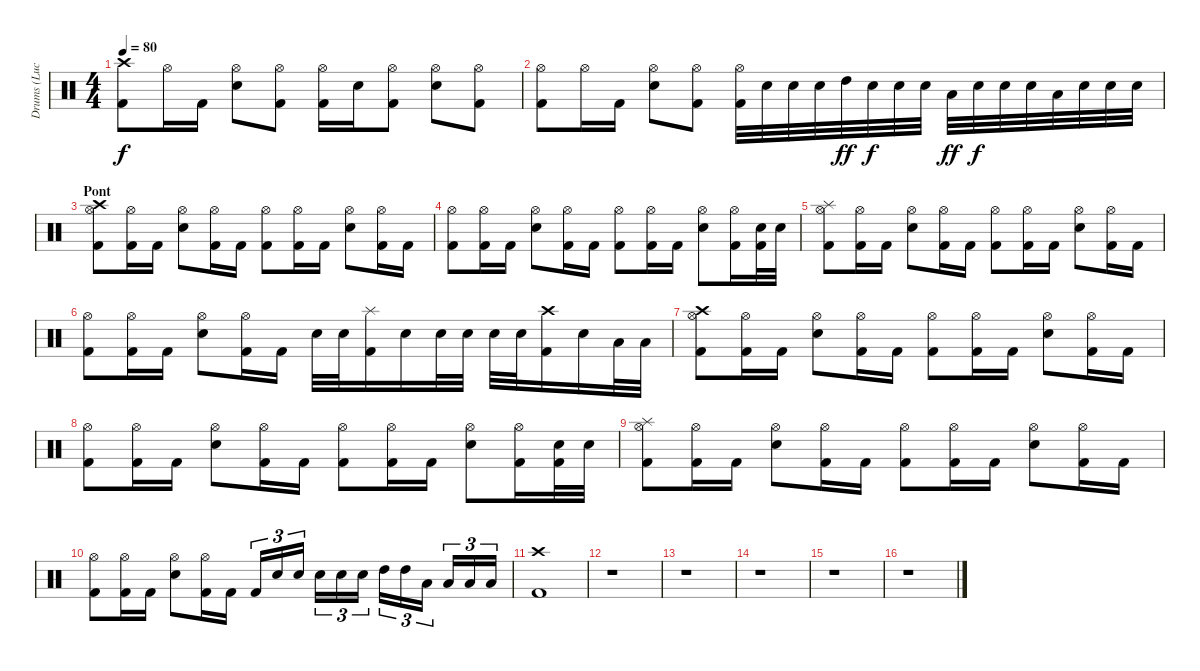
\track ("Drums (Luc)" "Drums (Luc") {instrument percussion}
\staff {score}
\articulation defaults
\ts (4 4)
\tempo 80
\clef neutral
\ks c
("Crash high (hit)" "Kick (hit) 2").8{dy f} "Hi-Hat (open)".16 "Kick (hit) 2".16 ("Hi-Hat (open)" "Electric Snare (hit)").8 ("Hi-Hat (open)" "Kick (hit) 2").8 ("Hi-Hat (open)" "Kick (hit) 2").16 "Electric Snare (hit)".16 ("Hi-Hat (open)" "Kick (hit) 2").8 ("Hi-Hat (open)" "Electric Snare (hit)").8 ("Hi-Hat (open)" "Kick (hit) 2").8 |
("Hi-Hat (open)" "Kick (hit) 2").8 "Hi-Hat (open)".16 "Kick (hit) 2".16 ("Hi-Hat (open)" "Electric Snare (hit)").8 ("Hi-Hat (open)" "Kick (hit) 2").8 ("Hi-Hat (open)" "Kick (hit) 2").32 "Electric Snare (hit)".32 "Electric Snare (hit)".32 "Electric Snare (hit)".32 "High Tom (hit)".32{dy ff} "Electric Snare (hit)".32{dy f} "Electric Snare (hit)".32 "Electric Snare (hit)".32 "Low Tom (hit)".32{dy ff} "Electric Snare (hit)".32{dy f} "Electric Snare (hit)".32 "Electric Snare (hit)".32 "Low Floor Tom (hit)".32 "Electric Snare (hit)".32 "Electric Snare (hit)".32 "Electric Snare (hit)".32 |
\section ("" "Pont")
("Crash high (hit)" "Hi-Hat (open)" "Kick (hit) 2").8 ("Hi-Hat (open)" "Kick (hit) 2").16 "Kick (hit) 2".16 ("Hi-Hat (open)" "Electric Snare (hit)").8 ("Hi-Hat (open)" "Kick (hit) 2").16 "Kick (hit) 2".16 ("Hi-Hat (open)" "Kick (hit) 2").8 ("Hi-Hat (open)" "Kick (hit) 2").16 "Kick (hit) 2".16 ("Hi-Hat (open)" "Electric Snare (hit)").8 ("Hi-Hat (open)" "Kick (hit) 2").16 "Kick (hit) 2".16 |
("Hi-Hat (open)" "Kick (hit) 2").8 ("Hi-Hat (open)" "Kick (hit) 2").16 "Kick (hit) 2".16 ("Hi-Hat (open)" "Electric Snare (hit)").8 ("Hi-Hat (open)" "Kick (hit) 2").16 "Kick (hit) 2".16 ("Hi-Hat (open)" "Kick (hit) 2").8 ("Hi-Hat (open)" "Kick (hit) 2").16 "Kick (hit) 2".16 ("Hi-Hat (open)" "Electric Snare (hit)").8 ("Hi-Hat (open)" "Kick (hit) 2").16 ("Electric Snare (hit)" "Kick (hit) 2").32 "Electric Snare (hit)".32 |
("Splash (hit)" "Hi-Hat (open)" "Kick (hit) 2").8 ("Hi-Hat (open)" "Kick (hit) 2").16 "Kick (hit) 2".16 ("Hi-Hat (open)" "Electric Snare (hit)").8 ("Hi-Hat (open)" "Kick (hit) 2").16 "Kick (hit) 2".16 ("Hi-Hat (open)" "Kick (hit) 2").8 ("Hi-Hat (open)" "Kick (hit) 2").16 "Kick (hit) 2".16 ("Hi-Hat (open)" "Electric Snare (hit)").8 ("Hi-Hat (open)" "Kick (hit) 2").16 "Kick (hit) 2".16 |
("Hi-Hat (open)" "Kick (hit) 2").8 ("Hi-Hat (open)" "Kick (hit) 2").16 "Kick (hit) 2".16 ("Hi-Hat (open)" "Electric Snare (hit)").8 ("Hi-Hat (open)" "Kick (hit) 2").16 "Kick (hit) 2".16 "Electric Snare (hit)".32 "Electric Snare (hit)".32 ("Splash (hit)" "Kick (hit) 2").16 "Electric Snare (hit)".16 "Electric Snare (hit)".32 "Electric Snare (hit)".32 "Electric Snare (hit)".32 "Electric Snare (hit)".32 ("Crash high (hit)" "Kick (hit) 2").16 "Electric Snare (hit)".16 "Low Tom (hit)".32 "Low Floor Tom (hit)".32 |
("Crash high (hit)" "Hi-Hat (open)" "Kick (hit) 2").8 ("Hi-Hat (open)" "Kick (hit) 2").16 "Kick (hit) 2".16 ("Hi-Hat (open)" "Electric Snare (hit)").8 ("Hi-Hat (open)" "Kick (hit) 2").16 "Kick (hit) 2".16 ("Hi-Hat (open)" "Kick (hit) 2").8 ("Hi-Hat (open)" "Kick (hit) 2").16 "Kick (hit) 2".16 ("Hi-Hat (open)" "Electric Snare (hit)").8 ("Hi-Hat (open)" "Kick (hit) 2").16 "Kick (hit) 2".16 |
("Hi-Hat (open)" "Kick (hit) 2").8 ("Hi-Hat (open)" "Kick (hit) 2").16 "Kick (hit) 2".16 ("Hi-Hat (open)" "Electric Snare (hit)").8 ("Hi-Hat (open)" "Kick (hit) 2").16 "Kick (hit) 2".16 ("Hi-Hat (open)" "Kick (hit) 2").8 ("Hi-Hat (open)" "Kick (hit) 2").16 "Kick (hit) 2".16 ("Hi-Hat (open)" "Electric Snare (hit)").8 ("Hi-Hat (open)" "Kick (hit) 2").16 ("Electric Snare (hit)" "Kick (hit) 2").32 "Electric Snare (hit)".32 |
("Splash (hit)" "Hi-Hat (open)" "Kick (hit) 2").8 ("Hi-Hat (open)" "Kick (hit) 2").16 "Kick (hit) 2".16 ("Hi-Hat (open)" "Electric Snare (hit)").8 ("Hi-Hat (open)" "Kick (hit) 2").16 "Kick (hit) 2".16 ("Hi-Hat (open)" "Kick (hit) 2").8 ("Hi-Hat (open)" "Kick (hit) 2").16 "Kick (hit) 2".16 ("Hi-Hat (open)" "Electric Snare (hit)").8 ("Hi-Hat (open)" "Kick (hit) 2").16 "Kick (hit) 2".16 |
("Hi-Hat (open)" "Kick (hit) 2").8 ("Hi-Hat (open)" "Kick (hit) 2").16 "Kick (hit) 2".16 ("Hi-Hat (open)" "Electric Snare (hit)").8 ("Hi-Hat (open)" "Kick (hit) 2").16 "Kick (hit) 2".16 "Kick (hit) 2".16{tu (3 2)} "Electric Snare (hit)".16{tu (3 2)} "Electric Snare (hit)".16{tu (3 2)} "Electric Snare (hit)".16{tu (3 2)} "Electric Snare (hit)".16{tu (3 2)} "Electric Snare (hit)".16{tu (3 2)} "High Tom (hit)".16{tu (3 2)} "High Tom (hit)".16{tu (3 2)} "Low Tom (hit)".16{tu (3 2)} "Low Tom (hit)".16{tu (3 2)} "Low Floor Tom (hit)".16{tu (3 2)} "Low Floor Tom (hit)".16{tu (3 2)} |
("Crash high (hit)" "Kick (hit) 2").1 |
r.1 |
r.1 |
r.1 |
r.1 |
r.1
